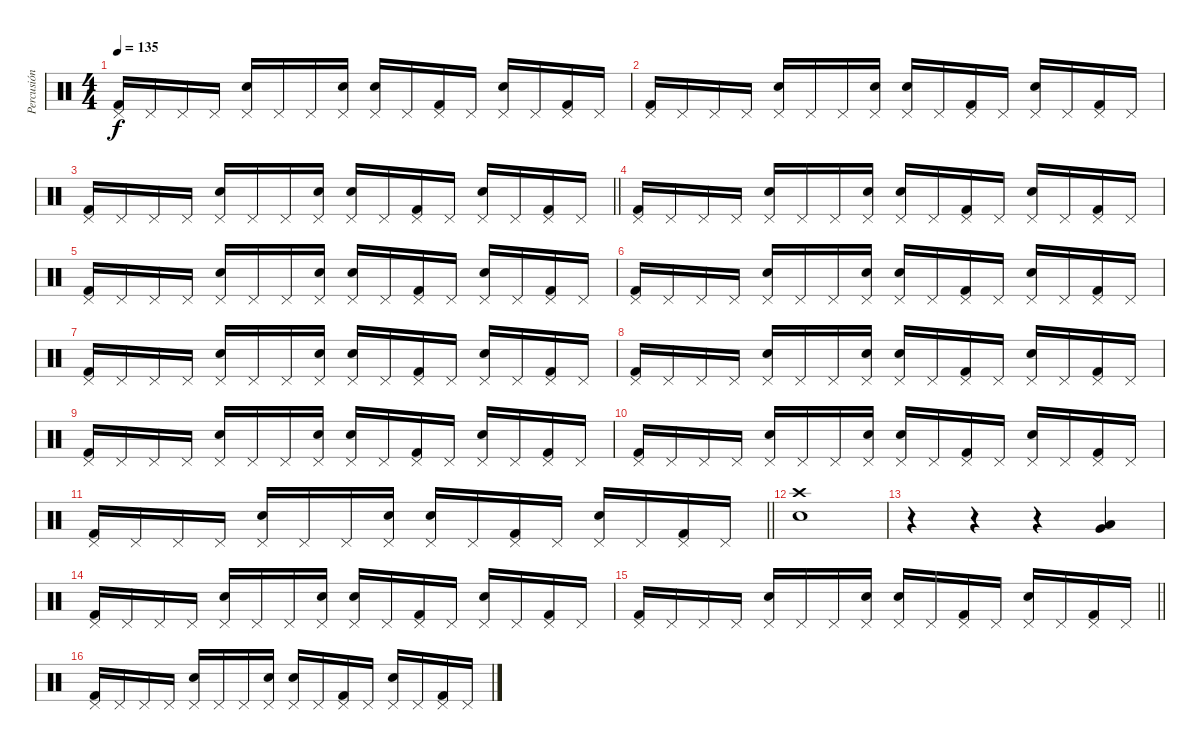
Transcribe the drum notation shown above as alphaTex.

\track ("Percusión" "Percusión") {instrument percussion}
\staff {score}
\articulation defaults
\ts (4 4)
\tempo 135
\clef neutral
\ks c
("Pedal Hi-Hat (hit)" "Kick (hit) 2").16{dy f} "Pedal Hi-Hat (hit)".16 "Pedal Hi-Hat (hit)".16 "Pedal Hi-Hat (hit)".16 ("Pedal Hi-Hat (hit)" "Snare (hit) 2").16 "Pedal Hi-Hat (hit)".16 "Pedal Hi-Hat (hit)".16 ("Pedal Hi-Hat (hit)" "Snare (hit) 2").16 ("Pedal Hi-Hat (hit)" "Snare (hit) 2").16 "Pedal Hi-Hat (hit)".16 ("Pedal Hi-Hat (hit)" "Kick (hit) 2").16 "Pedal Hi-Hat (hit)".16 ("Pedal Hi-Hat (hit)" "Snare (hit) 2").16 "Pedal Hi-Hat (hit)".16 ("Pedal Hi-Hat (hit)" "Kick (hit) 2").16 "Pedal Hi-Hat (hit)".16 |
("Pedal Hi-Hat (hit)" "Kick (hit) 2").16 "Pedal Hi-Hat (hit)".16 "Pedal Hi-Hat (hit)".16 "Pedal Hi-Hat (hit)".16 ("Pedal Hi-Hat (hit)" "Snare (hit) 2").16 "Pedal Hi-Hat (hit)".16 "Pedal Hi-Hat (hit)".16 ("Pedal Hi-Hat (hit)" "Snare (hit) 2").16 ("Pedal Hi-Hat (hit)" "Snare (hit) 2").16 "Pedal Hi-Hat (hit)".16 ("Pedal Hi-Hat (hit)" "Kick (hit) 2").16 "Pedal Hi-Hat (hit)".16 ("Pedal Hi-Hat (hit)" "Snare (hit) 2").16 "Pedal Hi-Hat (hit)".16 ("Pedal Hi-Hat (hit)" "Kick (hit) 2").16 "Pedal Hi-Hat (hit)".16 |
\barLineRight lightlight
("Pedal Hi-Hat (hit)" "Kick (hit) 2").16 "Pedal Hi-Hat (hit)".16 "Pedal Hi-Hat (hit)".16 "Pedal Hi-Hat (hit)".16 ("Pedal Hi-Hat (hit)" "Snare (hit) 2").16 "Pedal Hi-Hat (hit)".16 "Pedal Hi-Hat (hit)".16 ("Pedal Hi-Hat (hit)" "Snare (hit) 2").16 ("Pedal Hi-Hat (hit)" "Snare (hit) 2").16 "Pedal Hi-Hat (hit)".16 ("Pedal Hi-Hat (hit)" "Kick (hit) 2").16 "Pedal Hi-Hat (hit)".16 ("Pedal Hi-Hat (hit)" "Snare (hit) 2").16 "Pedal Hi-Hat (hit)".16 ("Pedal Hi-Hat (hit)" "Kick (hit) 2").16 "Pedal Hi-Hat (hit)".16 |
("Pedal Hi-Hat (hit)" "Kick (hit) 2").16 "Pedal Hi-Hat (hit)".16 "Pedal Hi-Hat (hit)".16 "Pedal Hi-Hat (hit)".16 ("Pedal Hi-Hat (hit)" "Snare (hit) 2").16 "Pedal Hi-Hat (hit)".16 "Pedal Hi-Hat (hit)".16 ("Pedal Hi-Hat (hit)" "Snare (hit) 2").16 ("Pedal Hi-Hat (hit)" "Snare (hit) 2").16 "Pedal Hi-Hat (hit)".16 ("Pedal Hi-Hat (hit)" "Kick (hit) 2").16 "Pedal Hi-Hat (hit)".16 ("Pedal Hi-Hat (hit)" "Snare (hit) 2").16 "Pedal Hi-Hat (hit)".16 ("Pedal Hi-Hat (hit)" "Kick (hit) 2").16 "Pedal Hi-Hat (hit)".16 |
("Pedal Hi-Hat (hit)" "Kick (hit) 2").16 "Pedal Hi-Hat (hit)".16 "Pedal Hi-Hat (hit)".16 "Pedal Hi-Hat (hit)".16 ("Pedal Hi-Hat (hit)" "Snare (hit) 2").16 "Pedal Hi-Hat (hit)".16 "Pedal Hi-Hat (hit)".16 ("Pedal Hi-Hat (hit)" "Snare (hit) 2").16 ("Pedal Hi-Hat (hit)" "Snare (hit) 2").16 "Pedal Hi-Hat (hit)".16 ("Pedal Hi-Hat (hit)" "Kick (hit) 2").16 "Pedal Hi-Hat (hit)".16 ("Pedal Hi-Hat (hit)" "Snare (hit) 2").16 "Pedal Hi-Hat (hit)".16 ("Pedal Hi-Hat (hit)" "Kick (hit) 2").16 "Pedal Hi-Hat (hit)".16 |
("Pedal Hi-Hat (hit)" "Kick (hit) 2").16 "Pedal Hi-Hat (hit)".16 "Pedal Hi-Hat (hit)".16 "Pedal Hi-Hat (hit)".16 ("Pedal Hi-Hat (hit)" "Snare (hit) 2").16 "Pedal Hi-Hat (hit)".16 "Pedal Hi-Hat (hit)".16 ("Pedal Hi-Hat (hit)" "Snare (hit) 2").16 ("Pedal Hi-Hat (hit)" "Snare (hit) 2").16 "Pedal Hi-Hat (hit)".16 ("Pedal Hi-Hat (hit)" "Kick (hit) 2").16 "Pedal Hi-Hat (hit)".16 ("Pedal Hi-Hat (hit)" "Snare (hit) 2").16 "Pedal Hi-Hat (hit)".16 ("Pedal Hi-Hat (hit)" "Kick (hit) 2").16 "Pedal Hi-Hat (hit)".16 |
("Pedal Hi-Hat (hit)" "Kick (hit) 2").16 "Pedal Hi-Hat (hit)".16 "Pedal Hi-Hat (hit)".16 "Pedal Hi-Hat (hit)".16 ("Pedal Hi-Hat (hit)" "Snare (hit) 2").16 "Pedal Hi-Hat (hit)".16 "Pedal Hi-Hat (hit)".16 ("Pedal Hi-Hat (hit)" "Snare (hit) 2").16 ("Pedal Hi-Hat (hit)" "Snare (hit) 2").16 "Pedal Hi-Hat (hit)".16 ("Pedal Hi-Hat (hit)" "Kick (hit) 2").16 "Pedal Hi-Hat (hit)".16 ("Pedal Hi-Hat (hit)" "Snare (hit) 2").16 "Pedal Hi-Hat (hit)".16 ("Pedal Hi-Hat (hit)" "Kick (hit) 2").16 "Pedal Hi-Hat (hit)".16 |
("Pedal Hi-Hat (hit)" "Kick (hit) 2").16 "Pedal Hi-Hat (hit)".16 "Pedal Hi-Hat (hit)".16 "Pedal Hi-Hat (hit)".16 ("Pedal Hi-Hat (hit)" "Snare (hit) 2").16 "Pedal Hi-Hat (hit)".16 "Pedal Hi-Hat (hit)".16 ("Pedal Hi-Hat (hit)" "Snare (hit) 2").16 ("Pedal Hi-Hat (hit)" "Snare (hit) 2").16 "Pedal Hi-Hat (hit)".16 ("Pedal Hi-Hat (hit)" "Kick (hit) 2").16 "Pedal Hi-Hat (hit)".16 ("Pedal Hi-Hat (hit)" "Snare (hit) 2").16 "Pedal Hi-Hat (hit)".16 ("Pedal Hi-Hat (hit)" "Kick (hit) 2").16 "Pedal Hi-Hat (hit)".16 |
("Pedal Hi-Hat (hit)" "Kick (hit) 2").16 "Pedal Hi-Hat (hit)".16 "Pedal Hi-Hat (hit)".16 "Pedal Hi-Hat (hit)".16 ("Pedal Hi-Hat (hit)" "Snare (hit) 2").16 "Pedal Hi-Hat (hit)".16 "Pedal Hi-Hat (hit)".16 ("Pedal Hi-Hat (hit)" "Snare (hit) 2").16 ("Pedal Hi-Hat (hit)" "Snare (hit) 2").16 "Pedal Hi-Hat (hit)".16 ("Pedal Hi-Hat (hit)" "Kick (hit) 2").16 "Pedal Hi-Hat (hit)".16 ("Pedal Hi-Hat (hit)" "Snare (hit) 2").16 "Pedal Hi-Hat (hit)".16 ("Pedal Hi-Hat (hit)" "Kick (hit) 2").16 "Pedal Hi-Hat (hit)".16 |
("Pedal Hi-Hat (hit)" "Kick (hit) 2").16 "Pedal Hi-Hat (hit)".16 "Pedal Hi-Hat (hit)".16 "Pedal Hi-Hat (hit)".16 ("Pedal Hi-Hat (hit)" "Snare (hit) 2").16 "Pedal Hi-Hat (hit)".16 "Pedal Hi-Hat (hit)".16 ("Pedal Hi-Hat (hit)" "Snare (hit) 2").16 ("Pedal Hi-Hat (hit)" "Snare (hit) 2").16 "Pedal Hi-Hat (hit)".16 ("Pedal Hi-Hat (hit)" "Kick (hit) 2").16 "Pedal Hi-Hat (hit)".16 ("Pedal Hi-Hat (hit)" "Snare (hit) 2").16 "Pedal Hi-Hat (hit)".16 ("Pedal Hi-Hat (hit)" "Kick (hit) 2").16 "Pedal Hi-Hat (hit)".16 |
\barLineRight lightlight
("Pedal Hi-Hat (hit)" "Kick (hit) 2").16 "Pedal Hi-Hat (hit)".16 "Pedal Hi-Hat (hit)".16 "Pedal Hi-Hat (hit)".16 ("Pedal Hi-Hat (hit)" "Snare (hit) 2").16 "Pedal Hi-Hat (hit)".16 "Pedal Hi-Hat (hit)".16 ("Pedal Hi-Hat (hit)" "Snare (hit) 2").16 ("Pedal Hi-Hat (hit)" "Snare (hit) 2").16 "Pedal Hi-Hat (hit)".16 ("Pedal Hi-Hat (hit)" "Kick (hit) 2").16 "Pedal Hi-Hat (hit)".16 ("Pedal Hi-Hat (hit)" "Snare (hit) 2").16 "Pedal Hi-Hat (hit)".16 ("Pedal Hi-Hat (hit)" "Kick (hit) 2").16 "Pedal Hi-Hat (hit)".16 |
("Crash high (hit)" "Snare (hit) 2").1 |
r.4 r.4 r.4 ("Low Tom (hit)" "Very Low Tom (hit)").4 |
("Pedal Hi-Hat (hit)" "Kick (hit) 2").16 "Pedal Hi-Hat (hit)".16 "Pedal Hi-Hat (hit)".16 "Pedal Hi-Hat (hit)".16 ("Pedal Hi-Hat (hit)" "Snare (hit) 2").16 "Pedal Hi-Hat (hit)".16 "Pedal Hi-Hat (hit)".16 ("Pedal Hi-Hat (hit)" "Snare (hit) 2").16 ("Pedal Hi-Hat (hit)" "Snare (hit) 2").16 "Pedal Hi-Hat (hit)".16 ("Pedal Hi-Hat (hit)" "Kick (hit) 2").16 "Pedal Hi-Hat (hit)".16 ("Pedal Hi-Hat (hit)" "Snare (hit) 2").16 "Pedal Hi-Hat (hit)".16 ("Pedal Hi-Hat (hit)" "Kick (hit) 2").16 "Pedal Hi-Hat (hit)".16 |
\barLineRight lightlight
("Pedal Hi-Hat (hit)" "Kick (hit) 2").16 "Pedal Hi-Hat (hit)".16 "Pedal Hi-Hat (hit)".16 "Pedal Hi-Hat (hit)".16 ("Pedal Hi-Hat (hit)" "Snare (hit) 2").16 "Pedal Hi-Hat (hit)".16 "Pedal Hi-Hat (hit)".16 ("Pedal Hi-Hat (hit)" "Snare (hit) 2").16 ("Pedal Hi-Hat (hit)" "Snare (hit) 2").16 "Pedal Hi-Hat (hit)".16 ("Pedal Hi-Hat (hit)" "Kick (hit) 2").16 "Pedal Hi-Hat (hit)".16 ("Pedal Hi-Hat (hit)" "Snare (hit) 2").16 "Pedal Hi-Hat (hit)".16 ("Pedal Hi-Hat (hit)" "Kick (hit) 2").16 "Pedal Hi-Hat (hit)".16 |
("Pedal Hi-Hat (hit)" "Kick (hit) 2").16 "Pedal Hi-Hat (hit)".16 "Pedal Hi-Hat (hit)".16 "Pedal Hi-Hat (hit)".16 ("Pedal Hi-Hat (hit)" "Snare (hit) 2").16 "Pedal Hi-Hat (hit)".16 "Pedal Hi-Hat (hit)".16 ("Pedal Hi-Hat (hit)" "Snare (hit) 2").16 ("Pedal Hi-Hat (hit)" "Snare (hit) 2").16 "Pedal Hi-Hat (hit)".16 ("Pedal Hi-Hat (hit)" "Kick (hit) 2").16 "Pedal Hi-Hat (hit)".16 ("Pedal Hi-Hat (hit)" "Snare (hit) 2").16 "Pedal Hi-Hat (hit)".16 ("Pedal Hi-Hat (hit)" "Kick (hit) 2").16 "Pedal Hi-Hat (hit)".16
